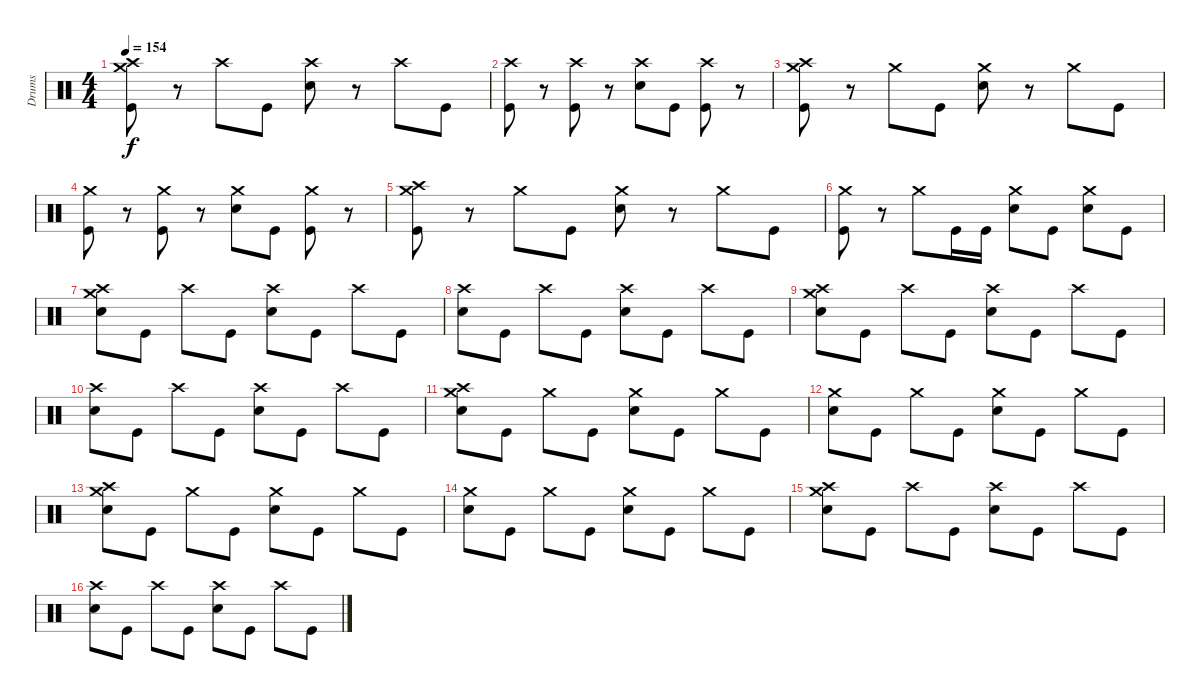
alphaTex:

\track ("Drums" "Drums") {instrument percussion}
\staff {score}
\articulation defaults
\ts (4 4)
\tempo 154
\clef neutral
\ks c
("Crash medium (hit)" "Crash high (hit)" "Kick (hit)").8{dy f} r.8 "Crash high (hit)".8 "Kick (hit)".8 ("Crash high (hit)" "Electric Snare (hit)").8 r.8 "Crash high (hit)".8 "Kick (hit)".8 |
("Crash high (hit)" "Kick (hit)").8 r.8 ("Crash high (hit)" "Kick (hit)").8 r.8 ("Crash high (hit)" "Electric Snare (hit)").8 "Kick (hit)".8 ("Crash high (hit)" "Kick (hit)").8 r.8 |
("Crash high (hit)" "Crash medium (hit)" "Kick (hit)").8 r.8 "Crash medium (hit)".8 "Kick (hit)".8 ("Crash medium (hit)" "Electric Snare (hit)").8 r.8 "Crash medium (hit)".8 "Kick (hit)".8 |
("Crash medium (hit)" "Kick (hit)").8 r.8 ("Crash medium (hit)" "Kick (hit)").8 r.8 ("Crash medium (hit)" "Electric Snare (hit)").8 "Kick (hit)".8 ("Crash medium (hit)" "Kick (hit)").8 r.8 |
("Crash high (hit)" "Crash medium (hit)" "Kick (hit)").8 r.8 "Crash medium (hit)".8 "Kick (hit)".8 ("Crash medium (hit)" "Electric Snare (hit)").8 r.8 "Crash medium (hit)".8 "Kick (hit)".8 |
("Crash medium (hit)" "Kick (hit)").8 r.8 "Crash medium (hit)".8 "Kick (hit)".16 "Kick (hit)".16 ("Crash medium (hit)" "Electric Snare (hit)").8 "Kick (hit)".8 ("Crash medium (hit)" "Electric Snare (hit)").8 "Kick (hit)".8 |
("Crash medium (hit)" "Crash high (hit)" "Electric Snare (hit)").8 "Kick (hit)".8 "Crash high (hit)".8 "Kick (hit)".8 ("Crash high (hit)" "Electric Snare (hit)").8 "Kick (hit)".8 "Crash high (hit)".8 "Kick (hit)".8 |
("Crash high (hit)" "Electric Snare (hit)").8 "Kick (hit)".8 "Crash high (hit)".8 "Kick (hit)".8 ("Crash high (hit)" "Electric Snare (hit)").8 "Kick (hit)".8 "Crash high (hit)".8 "Kick (hit)".8 |
("Crash medium (hit)" "Crash high (hit)" "Electric Snare (hit)").8 "Kick (hit)".8 "Crash high (hit)".8 "Kick (hit)".8 ("Crash high (hit)" "Electric Snare (hit)").8 "Kick (hit)".8 "Crash high (hit)".8 "Kick (hit)".8 |
("Crash high (hit)" "Electric Snare (hit)").8 "Kick (hit)".8 "Crash high (hit)".8 "Kick (hit)".8 ("Crash high (hit)" "Electric Snare (hit)").8 "Kick (hit)".8 "Crash high (hit)".8 "Kick (hit)".8 |
("Crash high (hit)" "Crash medium (hit)" "Electric Snare (hit)").8 "Kick (hit)".8 "Crash medium (hit)".8 "Kick (hit)".8 ("Crash medium (hit)" "Electric Snare (hit)").8 "Kick (hit)".8 "Crash medium (hit)".8 "Kick (hit)".8 |
("Crash medium (hit)" "Electric Snare (hit)").8 "Kick (hit)".8 "Crash medium (hit)".8 "Kick (hit)".8 ("Crash medium (hit)" "Electric Snare (hit)").8 "Kick (hit)".8 "Crash medium (hit)".8 "Kick (hit)".8 |
("Crash high (hit)" "Crash medium (hit)" "Electric Snare (hit)").8 "Kick (hit)".8 "Crash medium (hit)".8 "Kick (hit)".8 ("Crash medium (hit)" "Electric Snare (hit)").8 "Kick (hit)".8 "Crash medium (hit)".8 "Kick (hit)".8 |
("Crash medium (hit)" "Electric Snare (hit)").8 "Kick (hit)".8 "Crash medium (hit)".8 "Kick (hit)".8 ("Crash medium (hit)" "Electric Snare (hit)").8 "Kick (hit)".8 "Crash medium (hit)".8 "Kick (hit)".8 |
("Crash medium (hit)" "Crash high (hit)" "Electric Snare (hit)").8 "Kick (hit)".8 "Crash high (hit)".8 "Kick (hit)".8 ("Crash high (hit)" "Electric Snare (hit)").8 "Kick (hit)".8 "Crash high (hit)".8 "Kick (hit)".8 |
("Crash high (hit)" "Electric Snare (hit)").8 "Kick (hit)".8 "Crash high (hit)".8 "Kick (hit)".8 ("Crash high (hit)" "Electric Snare (hit)").8 "Kick (hit)".8 "Crash high (hit)".8 "Kick (hit)".8
